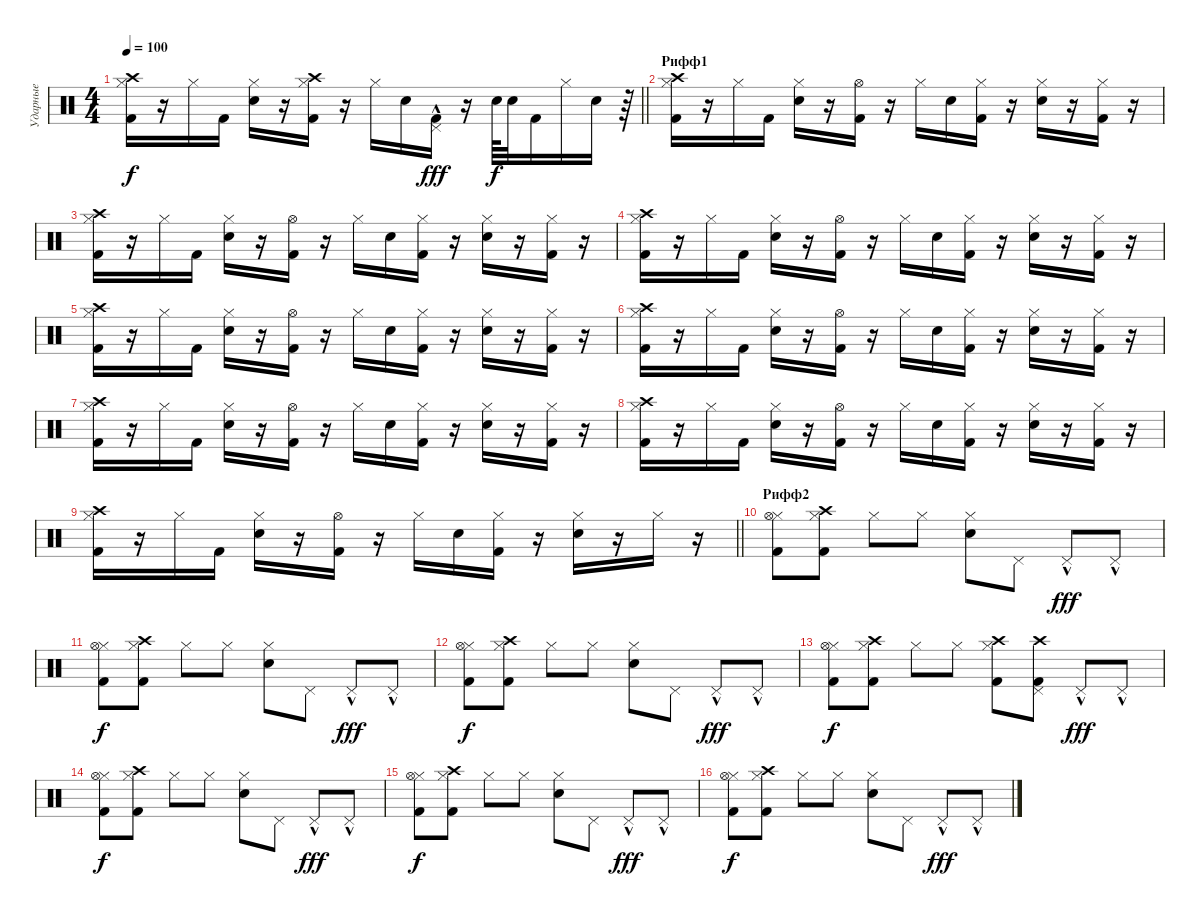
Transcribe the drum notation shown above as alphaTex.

\track ("Ударные" "Ударные") {instrument percussion}
\staff {score}
\articulation defaults
\ts (4 4)
\tempo 100
\clef neutral
\barLineRight lightlight
\ks c
("Hi-Hat (closed)" "Crash high (hit)" "Kick (hit) 2").16{dy f} r.16 "Hi-Hat (closed)".16 "Kick (hit) 2".16 ("Hi-Hat (closed)" "Electric Snare (hit)").16 r.16 ("Hi-Hat (closed)" "Crash high (hit)" "Kick (hit) 2").16 r.16 "Hi-Hat (closed)".16 "Electric Snare (hit)".16 ("Pedal Hi-Hat (hit)"{hac} "Kick (hit) 2").16{dy fff} r.16 "Electric Snare (hit)".64{dy f} "Electric Snare (hit)".32 "Kick (hit) 2".16 "Hi-Hat (closed)".16 "Electric Snare (hit)".16 r.64 |
\section ("" "Рифф1")
("Hi-Hat (closed)" "Crash high (hit)" "Kick (hit) 2").16 r.16 "Hi-Hat (closed)".16 "Kick (hit) 2".16 ("Hi-Hat (closed)" "Electric Snare (hit)").16 r.16 ("Hi-Hat (open)" "Kick (hit) 2").16 r.16 "Hi-Hat (closed)".16 "Electric Snare (hit)".16 ("Hi-Hat (closed)" "Kick (hit) 2").16 r.16 ("Hi-Hat (closed)" "Electric Snare (hit)").16 r.16 ("Hi-Hat (closed)" "Kick (hit) 2").16 r.16 |
("Hi-Hat (closed)" "Crash high (hit)" "Kick (hit) 2").16 r.16 "Hi-Hat (closed)".16 "Kick (hit) 2".16 ("Hi-Hat (closed)" "Electric Snare (hit)").16 r.16 ("Hi-Hat (open)" "Kick (hit) 2").16 r.16 "Hi-Hat (closed)".16 "Electric Snare (hit)".16 ("Hi-Hat (closed)" "Kick (hit) 2").16 r.16 ("Hi-Hat (closed)" "Electric Snare (hit)").16 r.16 ("Hi-Hat (closed)" "Kick (hit) 2").16 r.16 |
("Hi-Hat (closed)" "Crash high (hit)" "Kick (hit) 2").16 r.16 "Hi-Hat (closed)".16 "Kick (hit) 2".16 ("Hi-Hat (closed)" "Electric Snare (hit)").16 r.16 ("Hi-Hat (open)" "Kick (hit) 2").16 r.16 "Hi-Hat (closed)".16 "Electric Snare (hit)".16 ("Hi-Hat (closed)" "Kick (hit) 2").16 r.16 ("Hi-Hat (closed)" "Electric Snare (hit)").16 r.16 ("Hi-Hat (closed)" "Kick (hit) 2").16 r.16 |
("Hi-Hat (closed)" "Crash high (hit)" "Kick (hit) 2").16 r.16 "Hi-Hat (closed)".16 "Kick (hit) 2".16 ("Hi-Hat (closed)" "Electric Snare (hit)").16 r.16 ("Hi-Hat (open)" "Kick (hit) 2").16 r.16 "Hi-Hat (closed)".16 "Electric Snare (hit)".16 ("Hi-Hat (closed)" "Kick (hit) 2").16 r.16 ("Hi-Hat (closed)" "Electric Snare (hit)").16 r.16 ("Hi-Hat (closed)" "Kick (hit) 2").16 r.16 |
("Hi-Hat (closed)" "Crash high (hit)" "Kick (hit) 2").16 r.16 "Hi-Hat (closed)".16 "Kick (hit) 2".16 ("Hi-Hat (closed)" "Electric Snare (hit)").16 r.16 ("Hi-Hat (open)" "Kick (hit) 2").16 r.16 "Hi-Hat (closed)".16 "Electric Snare (hit)".16 ("Hi-Hat (closed)" "Kick (hit) 2").16 r.16 ("Hi-Hat (closed)" "Electric Snare (hit)").16 r.16 ("Hi-Hat (closed)" "Kick (hit) 2").16 r.16 |
("Hi-Hat (closed)" "Crash high (hit)" "Kick (hit) 2").16 r.16 "Hi-Hat (closed)".16 "Kick (hit) 2".16 ("Hi-Hat (closed)" "Electric Snare (hit)").16 r.16 ("Hi-Hat (open)" "Kick (hit) 2").16 r.16 "Hi-Hat (closed)".16 "Electric Snare (hit)".16 ("Hi-Hat (closed)" "Kick (hit) 2").16 r.16 ("Hi-Hat (closed)" "Electric Snare (hit)").16 r.16 ("Hi-Hat (closed)" "Kick (hit) 2").16 r.16 |
("Hi-Hat (closed)" "Crash high (hit)" "Kick (hit) 2").16 r.16 "Hi-Hat (closed)".16 "Kick (hit) 2".16 ("Hi-Hat (closed)" "Electric Snare (hit)").16 r.16 ("Hi-Hat (open)" "Kick (hit) 2").16 r.16 "Hi-Hat (closed)".16 "Electric Snare (hit)".16 ("Hi-Hat (closed)" "Kick (hit) 2").16 r.16 ("Hi-Hat (closed)" "Electric Snare (hit)").16 r.16 ("Hi-Hat (closed)" "Kick (hit) 2").16 r.16 |
\barLineRight lightlight
("Hi-Hat (closed)" "Crash high (hit)" "Kick (hit) 2").16 r.16 "Hi-Hat (closed)".16 "Kick (hit) 2".16 ("Hi-Hat (closed)" "Electric Snare (hit)").16 r.16 ("Hi-Hat (open)" "Kick (hit) 2").16 r.16 "Hi-Hat (closed)".16 "Electric Snare (hit)".16 ("Hi-Hat (closed)" "Kick (hit) 2").16 r.16 ("Hi-Hat (closed)" "Electric Snare (hit)").16 r.16 "Hi-Hat (closed)".16 r.16 |
\section ("" "Рифф2")
("Hi-Hat (closed)" "Hi-Hat (open)" "Kick (hit) 2").8 ("Hi-Hat (closed)" "Crash high (hit)" "Kick (hit) 2").8 "Hi-Hat (closed)".8 "Hi-Hat (closed)".8 ("Hi-Hat (closed)" "Electric Snare (hit)").8 "Pedal Hi-Hat (hit)".8 "Pedal Hi-Hat (hit)"{hac}.8{dy fff} "Pedal Hi-Hat (hit)"{hac}.8 |
("Hi-Hat (closed)" "Hi-Hat (open)" "Kick (hit) 2").8{dy f} ("Hi-Hat (closed)" "Crash high (hit)" "Kick (hit) 2").8 "Hi-Hat (closed)".8 "Hi-Hat (closed)".8 ("Hi-Hat (closed)" "Electric Snare (hit)").8 "Pedal Hi-Hat (hit)".8 "Pedal Hi-Hat (hit)"{hac}.8{dy fff} "Pedal Hi-Hat (hit)"{hac}.8 |
("Hi-Hat (closed)" "Hi-Hat (open)" "Kick (hit) 2").8{dy f} ("Hi-Hat (closed)" "Crash high (hit)" "Kick (hit) 2").8 "Hi-Hat (closed)".8 "Hi-Hat (closed)".8 ("Hi-Hat (closed)" "Electric Snare (hit)").8 "Pedal Hi-Hat (hit)".8 "Pedal Hi-Hat (hit)"{hac}.8{dy fff} "Pedal Hi-Hat (hit)"{hac}.8 |
("Hi-Hat (closed)" "Hi-Hat (open)" "Kick (hit) 2").8{dy f} ("Hi-Hat (closed)" "Crash high (hit)" "Kick (hit) 2").8 "Hi-Hat (closed)".8 "Hi-Hat (closed)".8 ("Hi-Hat (closed)" "Crash high (hit)" "Kick (hit) 2").8 ("Pedal Hi-Hat (hit)" "Crash high (hit)" "Kick (hit) 2").8 "Pedal Hi-Hat (hit)"{hac}.8{dy fff} "Pedal Hi-Hat (hit)"{hac}.8 |
("Hi-Hat (closed)" "Hi-Hat (open)" "Kick (hit) 2").8{dy f} ("Hi-Hat (closed)" "Crash high (hit)" "Kick (hit) 2").8 "Hi-Hat (closed)".8 "Hi-Hat (closed)".8 ("Hi-Hat (closed)" "Electric Snare (hit)").8 "Pedal Hi-Hat (hit)".8 "Pedal Hi-Hat (hit)"{hac}.8{dy fff} "Pedal Hi-Hat (hit)"{hac}.8 |
("Hi-Hat (closed)" "Hi-Hat (open)" "Kick (hit) 2").8{dy f} ("Hi-Hat (closed)" "Crash high (hit)" "Kick (hit) 2").8 "Hi-Hat (closed)".8 "Hi-Hat (closed)".8 ("Hi-Hat (closed)" "Electric Snare (hit)").8 "Pedal Hi-Hat (hit)".8 "Pedal Hi-Hat (hit)"{hac}.8{dy fff} "Pedal Hi-Hat (hit)"{hac}.8 |
("Hi-Hat (closed)" "Hi-Hat (open)" "Kick (hit) 2").8{dy f} ("Hi-Hat (closed)" "Crash high (hit)" "Kick (hit) 2").8 "Hi-Hat (closed)".8 "Hi-Hat (closed)".8 ("Hi-Hat (closed)" "Electric Snare (hit)").8 "Pedal Hi-Hat (hit)".8 "Pedal Hi-Hat (hit)"{hac}.8{dy fff} "Pedal Hi-Hat (hit)"{hac}.8
